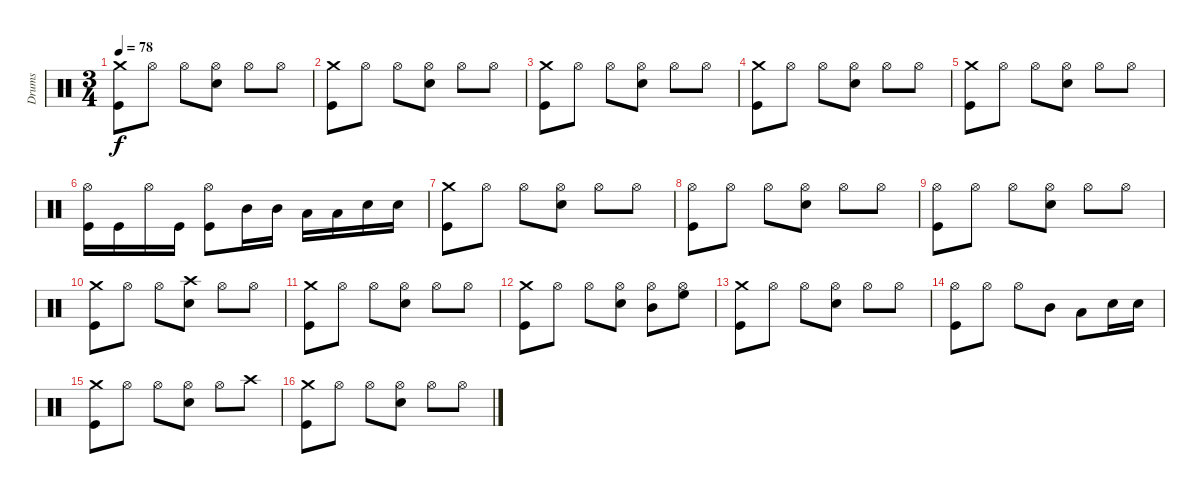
\track ("Drums" "Drums") {instrument percussion}
\staff {score}
\articulation defaults
\ts (3 4)
\tempo 78
\clef neutral
\ks c
("Crash medium (hit)" "Kick (hit)").8{dy f} "Hi-Hat (open)".8 "Hi-Hat (open)".8 ("Hi-Hat (open)" "Snare (hit) 2").8 "Hi-Hat (open)".8 "Hi-Hat (open)".8 |
("Crash medium (hit)" "Kick (hit)").8 "Hi-Hat (open)".8 "Hi-Hat (open)".8 ("Hi-Hat (open)" "Snare (hit) 2").8 "Hi-Hat (open)".8 "Hi-Hat (open)".8 |
("Crash medium (hit)" "Kick (hit)").8 "Hi-Hat (open)".8 "Hi-Hat (open)".8 ("Hi-Hat (open)" "Snare (hit) 2").8 "Hi-Hat (open)".8 "Hi-Hat (open)".8 |
("Crash medium (hit)" "Kick (hit)").8 "Hi-Hat (open)".8 "Hi-Hat (open)".8 ("Hi-Hat (open)" "Snare (hit) 2").8 "Hi-Hat (open)".8 "Hi-Hat (open)".8 |
("Crash medium (hit)" "Kick (hit)").8 "Hi-Hat (open)".8 "Hi-Hat (open)".8 ("Hi-Hat (open)" "Snare (hit) 2").8 "Hi-Hat (open)".8 "Hi-Hat (open)".8 |
("Hi-Hat (open)" "Kick (hit)").16 "Kick (hit)".16 "Hi-Hat (open)".16 "Kick (hit)".16 ("Hi-Hat (open)" "Kick (hit)").8 "Mid Tom (hit)".16 "Mid Tom (hit)".16 "Low Tom (hit)".16 "Low Tom (hit)".16 "Snare (hit) 2".16 "Snare (hit) 2".16 |
("Crash medium (hit)" "Kick (hit)").8 "Hi-Hat (open)".8 "Hi-Hat (open)".8 ("Hi-Hat (open)" "Snare (hit) 2").8 "Hi-Hat (open)".8 "Hi-Hat (open)".8 |
("Hi-Hat (open)" "Kick (hit)").8 "Hi-Hat (open)".8 "Hi-Hat (open)".8 ("Hi-Hat (open)" "Snare (hit) 2").8 "Hi-Hat (open)".8 "Hi-Hat (open)".8 |
("Hi-Hat (open)" "Kick (hit)").8 "Hi-Hat (open)".8 "Hi-Hat (open)".8 ("Hi-Hat (open)" "Snare (hit) 2").8 "Hi-Hat (open)".8 "Hi-Hat (open)".8 |
("Crash medium (hit)" "Kick (hit)").8 "Hi-Hat (open)".8 "Hi-Hat (open)".8 ("Crash high (hit)" "Snare (hit) 2").8 "Hi-Hat (open)".8 "Hi-Hat (open)".8 |
("Crash medium (hit)" "Kick (hit)").8 "Hi-Hat (open)".8 "Hi-Hat (open)".8 ("Hi-Hat (open)" "Snare (hit) 2").8 "Hi-Hat (open)".8 "Hi-Hat (open)".8 |
("Crash medium (hit)" "Kick (hit)").8 "Hi-Hat (open)".8 "Hi-Hat (open)".8 ("Hi-Hat (open)" "Snare (hit) 2").8 ("Hi-Hat (open)" "Mid Tom (hit)").8 ("Hi-Hat (open)" "High Floor Tom (hit)").8 |
("Crash medium (hit)" "Kick (hit)").8 "Hi-Hat (open)".8 "Hi-Hat (open)".8 ("Hi-Hat (open)" "Snare (hit) 2").8 "Hi-Hat (open)".8 "Hi-Hat (open)".8 |
("Hi-Hat (open)" "Kick (hit)").8 "Hi-Hat (open)".8 "Hi-Hat (open)".8 "Mid Tom (hit)".8 "Low Tom (hit)".8 "Snare (hit) 2".16 "Snare (hit) 2".16 |
("Crash medium (hit)" "Kick (hit)").8 "Hi-Hat (open)".8 "Hi-Hat (open)".8 ("Hi-Hat (open)" "Snare (hit) 2").8 "Hi-Hat (open)".8 "Crash high (hit)".8 |
("Crash medium (hit)" "Kick (hit)").8 "Hi-Hat (open)".8 "Hi-Hat (open)".8 ("Hi-Hat (open)" "Snare (hit) 2").8 "Hi-Hat (open)".8 "Hi-Hat (open)".8
